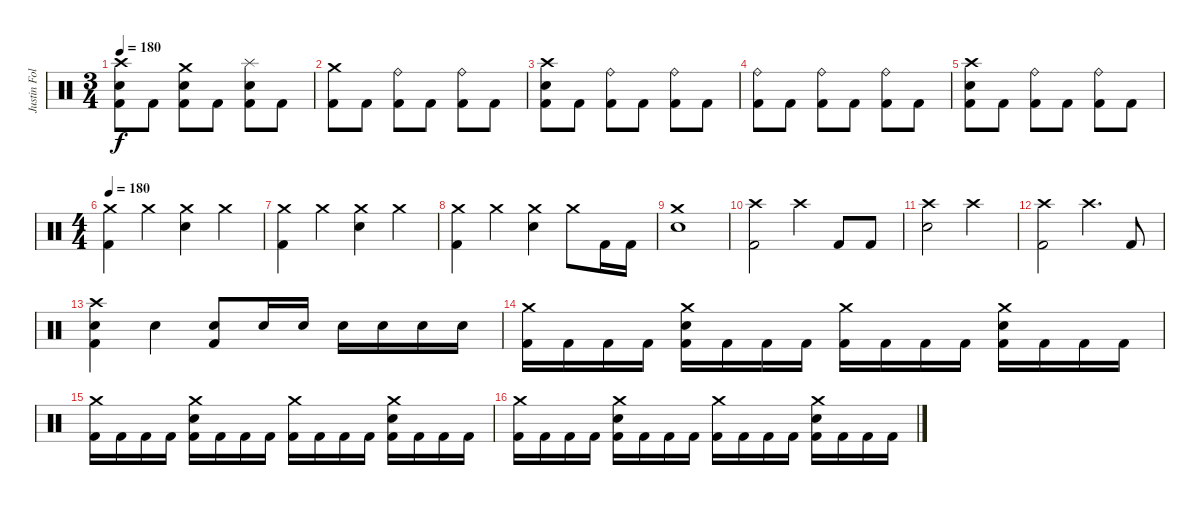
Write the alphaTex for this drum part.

\track ("Justin Foley" "Justin Fol") {instrument percussion}
\staff {score}
\articulation defaults
\ts (3 4)
\tempo 180
\clef neutral
\ks c
("Crash high (hit)" "Electric Snare (hit)" "Kick (hit) 2").8{dy f} "Kick (hit) 2".8 ("Crash medium (hit)" "Electric Snare (hit)" "Kick (hit) 2").8 "Kick (hit) 2".8 ("Splash (hit)" "Electric Snare (hit)" "Kick (hit) 2").8 "Kick (hit) 2".8 |
("Crash medium (hit)" "Kick (hit) 2").8 "Kick (hit) 2".8 ("Ride (bell)" "Kick (hit) 2").8 "Kick (hit) 2".8 ("Ride (bell)" "Kick (hit) 2").8 "Kick (hit) 2".8 |
("Crash high (hit)" "Electric Snare (hit)" "Kick (hit) 2").8 "Kick (hit) 2".8 ("Ride (bell)" "Kick (hit) 2").8 "Kick (hit) 2".8 ("Ride (bell)" "Kick (hit) 2").8 "Kick (hit) 2".8 |
("Ride (bell)" "Kick (hit) 2").8 "Kick (hit) 2".8 ("Ride (bell)" "Kick (hit) 2").8 "Kick (hit) 2".8 ("Ride (bell)" "Kick (hit) 2").8 "Kick (hit) 2".8 |
("Crash high (hit)" "Electric Snare (hit)" "Kick (hit) 2").8 "Kick (hit) 2".8 ("Ride (bell)" "Kick (hit) 2").8 "Kick (hit) 2".8 ("Ride (bell)" "Kick (hit) 2").8 "Kick (hit) 2".8 |
\ts (4 4)
\tempo 180
("Crash medium (hit)" "Kick (hit) 2").4 "Crash medium (hit)".4 ("Crash medium (hit)" "Electric Snare (hit)").4 "Crash medium (hit)".4 |
("Crash medium (hit)" "Kick (hit) 2").4 "Crash medium (hit)".4 ("Crash medium (hit)" "Electric Snare (hit)").4 "Crash medium (hit)".4 |
("Crash medium (hit)" "Kick (hit) 2").4 "Crash medium (hit)".4 ("Crash medium (hit)" "Electric Snare (hit)").4 "Crash medium (hit)".8 "Kick (hit) 2".16 "Kick (hit) 2".16 |
("Crash medium (hit)" "Electric Snare (hit)").1 |
("Crash high (hit)" "Kick (hit) 2").2 "Crash high (hit)".4 "Kick (hit) 2".8 "Kick (hit) 2".8 |
("Crash high (hit)" "Electric Snare (hit)").2 "Crash high (hit)".2 |
("Crash high (hit)" "Kick (hit) 2").2 "Crash high (hit)".4{d} "Kick (hit) 2".8 |
("Crash high (hit)" "Electric Snare (hit)" "Kick (hit) 2").4 "Electric Snare (hit)".4 ("Electric Snare (hit)" "Kick (hit) 2").8 "Electric Snare (hit)".16 "Electric Snare (hit)".16 "Electric Snare (hit)".16 "Electric Snare (hit)".16 "Electric Snare (hit)".16 "Electric Snare (hit)".16 |
("Crash medium (hit)" "Kick (hit) 2").16 "Kick (hit) 2".16 "Kick (hit) 2".16 "Kick (hit) 2".16 ("Crash medium (hit)" "Electric Snare (hit)" "Kick (hit) 2").16 "Kick (hit) 2".16 "Kick (hit) 2".16 "Kick (hit) 2".16 ("Crash medium (hit)" "Kick (hit) 2").16 "Kick (hit) 2".16 "Kick (hit) 2".16 "Kick (hit) 2".16 ("Crash medium (hit)" "Electric Snare (hit)" "Kick (hit) 2").16 "Kick (hit) 2".16 "Kick (hit) 2".16 "Kick (hit) 2".16 |
("Crash medium (hit)" "Kick (hit) 2").16 "Kick (hit) 2".16 "Kick (hit) 2".16 "Kick (hit) 2".16 ("Crash medium (hit)" "Electric Snare (hit)" "Kick (hit) 2").16 "Kick (hit) 2".16 "Kick (hit) 2".16 "Kick (hit) 2".16 ("Crash medium (hit)" "Kick (hit) 2").16 "Kick (hit) 2".16 "Kick (hit) 2".16 "Kick (hit) 2".16 ("Crash medium (hit)" "Electric Snare (hit)" "Kick (hit) 2").16 "Kick (hit) 2".16 "Kick (hit) 2".16 "Kick (hit) 2".16 |
("Crash medium (hit)" "Kick (hit) 2").16 "Kick (hit) 2".16 "Kick (hit) 2".16 "Kick (hit) 2".16 ("Crash medium (hit)" "Electric Snare (hit)" "Kick (hit) 2").16 "Kick (hit) 2".16 "Kick (hit) 2".16 "Kick (hit) 2".16 ("Crash medium (hit)" "Kick (hit) 2").16 "Kick (hit) 2".16 "Kick (hit) 2".16 "Kick (hit) 2".16 ("Crash medium (hit)" "Electric Snare (hit)" "Kick (hit) 2").16 "Kick (hit) 2".16 "Kick (hit) 2".16 "Kick (hit) 2".16
